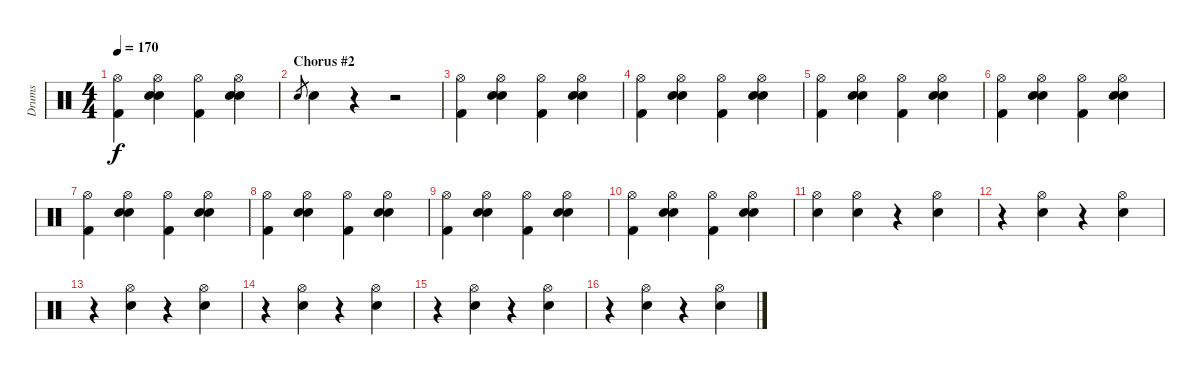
\track ("Drums" "Drums") {instrument percussion}
\staff {score}
\articulation defaults
\ts (4 4)
\tempo 170
\clef neutral
\ks c
("Hi-Hat (open)" "Kick (hit) 2").4{dy f} ("Hi-Hat (open)" "Electric Snare (hit)" "Hand Clap (hit)").4 ("Hi-Hat (open)" "Kick (hit) 2").4 ("Hi-Hat (open)" "Electric Snare (hit)" "Hand Clap (hit)").4 |
\section ("" "Chorus #2")
"Electric Snare (hit)".8{gr} "Electric Snare (hit)".4 r.4 r.2 |
("Hi-Hat (open)" "Kick (hit) 2").4 ("Hi-Hat (open)" "Electric Snare (hit)" "Hand Clap (hit)").4 ("Hi-Hat (open)" "Kick (hit) 2").4 ("Hi-Hat (open)" "Electric Snare (hit)" "Hand Clap (hit)").4 |
("Hi-Hat (open)" "Kick (hit) 2").4 ("Hi-Hat (open)" "Electric Snare (hit)" "Hand Clap (hit)").4 ("Hi-Hat (open)" "Kick (hit) 2").4 ("Hi-Hat (open)" "Electric Snare (hit)" "Hand Clap (hit)").4 |
("Hi-Hat (open)" "Kick (hit) 2").4 ("Hi-Hat (open)" "Electric Snare (hit)" "Hand Clap (hit)").4 ("Hi-Hat (open)" "Kick (hit) 2").4 ("Hi-Hat (open)" "Electric Snare (hit)" "Hand Clap (hit)").4 |
("Hi-Hat (open)" "Kick (hit) 2").4 ("Hi-Hat (open)" "Electric Snare (hit)" "Hand Clap (hit)").4 ("Hi-Hat (open)" "Kick (hit) 2").4 ("Hi-Hat (open)" "Electric Snare (hit)" "Hand Clap (hit)").4 |
("Hi-Hat (open)" "Kick (hit) 2").4 ("Hi-Hat (open)" "Electric Snare (hit)" "Hand Clap (hit)").4 ("Hi-Hat (open)" "Kick (hit) 2").4 ("Hi-Hat (open)" "Electric Snare (hit)" "Hand Clap (hit)").4 |
("Hi-Hat (open)" "Kick (hit) 2").4 ("Hi-Hat (open)" "Electric Snare (hit)" "Hand Clap (hit)").4 ("Hi-Hat (open)" "Kick (hit) 2").4 ("Hi-Hat (open)" "Electric Snare (hit)" "Hand Clap (hit)").4 |
("Hi-Hat (open)" "Kick (hit) 2").4 ("Hi-Hat (open)" "Electric Snare (hit)" "Hand Clap (hit)").4 ("Hi-Hat (open)" "Kick (hit) 2").4 ("Hi-Hat (open)" "Electric Snare (hit)" "Hand Clap (hit)").4 |
("Hi-Hat (open)" "Kick (hit) 2").4 ("Hi-Hat (open)" "Electric Snare (hit)" "Hand Clap (hit)").4 ("Hi-Hat (open)" "Kick (hit) 2").4 ("Hi-Hat (open)" "Electric Snare (hit)" "Hand Clap (hit)").4 |
("Hi-Hat (open)" "Electric Snare (hit)").4 ("Hi-Hat (open)" "Hand Clap (hit)").4 r.4 ("Hi-Hat (open)" "Hand Clap (hit)").4 |
r.4 ("Hi-Hat (open)" "Hand Clap (hit)").4 r.4 ("Hi-Hat (open)" "Hand Clap (hit)").4 |
r.4 ("Hi-Hat (open)" "Hand Clap (hit)").4 r.4 ("Hi-Hat (open)" "Hand Clap (hit)").4 |
r.4 ("Hi-Hat (open)" "Hand Clap (hit)").4 r.4 ("Hi-Hat (open)" "Hand Clap (hit)").4 |
r.4 ("Hi-Hat (open)" "Hand Clap (hit)").4 r.4 ("Hi-Hat (open)" "Hand Clap (hit)").4 |
r.4 ("Hi-Hat (open)" "Hand Clap (hit)").4 r.4 ("Hi-Hat (open)" "Hand Clap (hit)").4
